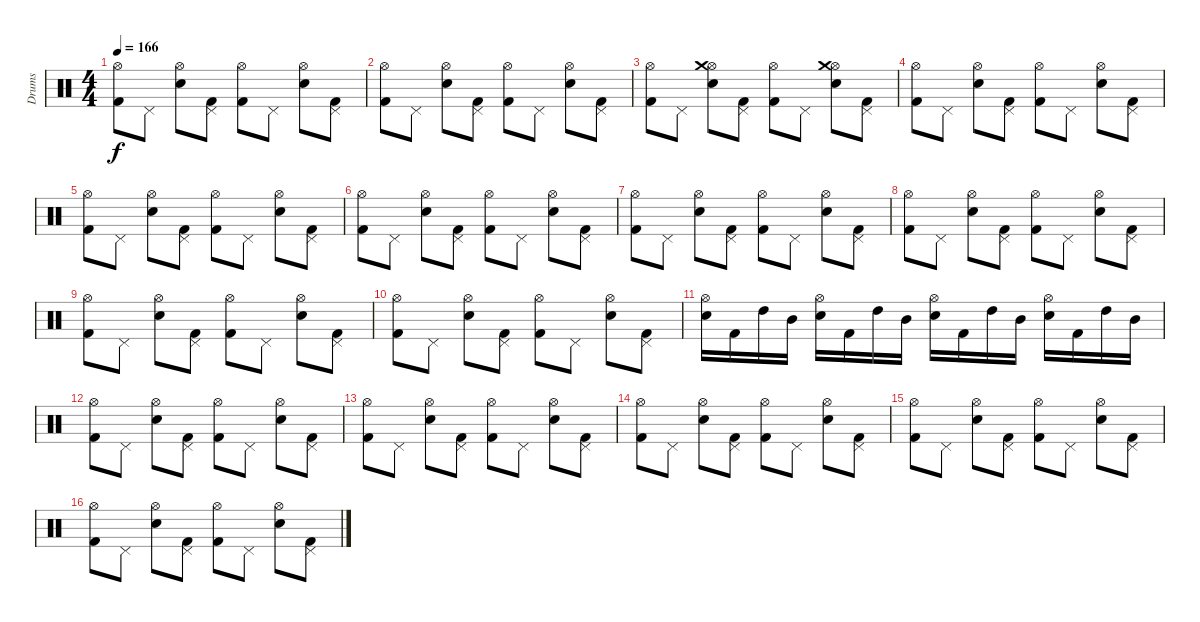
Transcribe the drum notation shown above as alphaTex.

\track ("Drums" "Drums") {instrument percussion}
\staff {score}
\articulation defaults
\ts (4 4)
\tempo 166
\clef neutral
\ks c
("Kick (hit) 2" "Hi-Hat (open)").8{dy f} "Pedal Hi-Hat (hit)".8 ("Snare (hit) 2" "Hi-Hat (open)").8 ("Kick (hit) 2" "Pedal Hi-Hat (hit)").8 ("Kick (hit) 2" "Hi-Hat (open)").8 "Pedal Hi-Hat (hit)".8 ("Snare (hit) 2" "Hi-Hat (open)").8 ("Kick (hit) 2" "Pedal Hi-Hat (hit)").8 |
("Kick (hit) 2" "Hi-Hat (open)").8 "Pedal Hi-Hat (hit)".8 ("Snare (hit) 2" "Hi-Hat (open)").8 ("Kick (hit) 2" "Pedal Hi-Hat (hit)").8 ("Kick (hit) 2" "Hi-Hat (open)").8 "Pedal Hi-Hat (hit)".8 ("Snare (hit) 2" "Hi-Hat (open)").8 ("Kick (hit) 2" "Pedal Hi-Hat (hit)").8 |
("Kick (hit) 2" "Hi-Hat (open)").8 "Pedal Hi-Hat (hit)".8 ("Snare (hit) 2" "Hi-Hat (open)" "Crash medium (hit)").8 ("Kick (hit) 2" "Pedal Hi-Hat (hit)").8 ("Kick (hit) 2" "Hi-Hat (open)").8 "Pedal Hi-Hat (hit)".8 ("Snare (hit) 2" "Hi-Hat (open)" "Crash medium (hit)").8 ("Kick (hit) 2" "Pedal Hi-Hat (hit)").8 |
("Kick (hit) 2" "Hi-Hat (open)").8 "Pedal Hi-Hat (hit)".8 ("Snare (hit) 2" "Hi-Hat (open)").8 ("Kick (hit) 2" "Pedal Hi-Hat (hit)").8 ("Kick (hit) 2" "Hi-Hat (open)").8 "Pedal Hi-Hat (hit)".8 ("Snare (hit) 2" "Hi-Hat (open)").8 ("Kick (hit) 2" "Pedal Hi-Hat (hit)").8 |
("Kick (hit) 2" "Hi-Hat (open)").8 "Pedal Hi-Hat (hit)".8 ("Snare (hit) 2" "Hi-Hat (open)").8 ("Kick (hit) 2" "Pedal Hi-Hat (hit)").8 ("Kick (hit) 2" "Hi-Hat (open)").8 "Pedal Hi-Hat (hit)".8 ("Snare (hit) 2" "Hi-Hat (open)").8 ("Kick (hit) 2" "Pedal Hi-Hat (hit)").8 |
("Kick (hit) 2" "Hi-Hat (open)").8 "Pedal Hi-Hat (hit)".8 ("Snare (hit) 2" "Hi-Hat (open)").8 ("Kick (hit) 2" "Pedal Hi-Hat (hit)").8 ("Kick (hit) 2" "Hi-Hat (open)").8 "Pedal Hi-Hat (hit)".8 ("Snare (hit) 2" "Hi-Hat (open)").8 ("Kick (hit) 2" "Pedal Hi-Hat (hit)").8 |
("Kick (hit) 2" "Hi-Hat (open)").8 "Pedal Hi-Hat (hit)".8 ("Snare (hit) 2" "Hi-Hat (open)").8 ("Kick (hit) 2" "Pedal Hi-Hat (hit)").8 ("Kick (hit) 2" "Hi-Hat (open)").8 "Pedal Hi-Hat (hit)".8 ("Snare (hit) 2" "Hi-Hat (open)").8 ("Kick (hit) 2" "Pedal Hi-Hat (hit)").8 |
("Kick (hit) 2" "Hi-Hat (open)").8 "Pedal Hi-Hat (hit)".8 ("Snare (hit) 2" "Hi-Hat (open)").8 ("Kick (hit) 2" "Pedal Hi-Hat (hit)").8 ("Kick (hit) 2" "Hi-Hat (open)").8 "Pedal Hi-Hat (hit)".8 ("Snare (hit) 2" "Hi-Hat (open)").8 ("Kick (hit) 2" "Pedal Hi-Hat (hit)").8 |
("Kick (hit) 2" "Hi-Hat (open)").8 "Pedal Hi-Hat (hit)".8 ("Snare (hit) 2" "Hi-Hat (open)").8 ("Kick (hit) 2" "Pedal Hi-Hat (hit)").8 ("Kick (hit) 2" "Hi-Hat (open)").8 "Pedal Hi-Hat (hit)".8 ("Snare (hit) 2" "Hi-Hat (open)").8 ("Kick (hit) 2" "Pedal Hi-Hat (hit)").8 |
("Kick (hit) 2" "Hi-Hat (open)").8 "Pedal Hi-Hat (hit)".8 ("Snare (hit) 2" "Hi-Hat (open)").8 ("Kick (hit) 2" "Pedal Hi-Hat (hit)").8 ("Kick (hit) 2" "Hi-Hat (open)").8 "Pedal Hi-Hat (hit)".8 ("Snare (hit) 2" "Hi-Hat (open)").8 ("Kick (hit) 2" "Pedal Hi-Hat (hit)").8 |
("Snare (hit) 2" "Hi-Hat (open)").16 "Kick (hit) 2".16 "High Tom (hit)".16 "Mid Tom (hit)".16 ("Snare (hit) 2" "Hi-Hat (open)").16 "Kick (hit) 2".16 "High Tom (hit)".16 "Mid Tom (hit)".16 ("Snare (hit) 2" "Hi-Hat (open)").16 "Kick (hit) 2".16 "High Tom (hit)".16 "Mid Tom (hit)".16 ("Snare (hit) 2" "Hi-Hat (open)").16 "Kick (hit) 2".16 "High Tom (hit)".16 "Mid Tom (hit)".16 |
("Kick (hit) 2" "Hi-Hat (open)").8 "Pedal Hi-Hat (hit)".8 ("Snare (hit) 2" "Hi-Hat (open)").8 ("Kick (hit) 2" "Pedal Hi-Hat (hit)").8 ("Kick (hit) 2" "Hi-Hat (open)").8 "Pedal Hi-Hat (hit)".8 ("Snare (hit) 2" "Hi-Hat (open)").8 ("Kick (hit) 2" "Pedal Hi-Hat (hit)").8 |
("Kick (hit) 2" "Hi-Hat (open)").8 "Pedal Hi-Hat (hit)".8 ("Snare (hit) 2" "Hi-Hat (open)").8 ("Kick (hit) 2" "Pedal Hi-Hat (hit)").8 ("Kick (hit) 2" "Hi-Hat (open)").8 "Pedal Hi-Hat (hit)".8 ("Snare (hit) 2" "Hi-Hat (open)").8 ("Kick (hit) 2" "Pedal Hi-Hat (hit)").8 |
("Kick (hit) 2" "Hi-Hat (open)").8 "Pedal Hi-Hat (hit)".8 ("Snare (hit) 2" "Hi-Hat (open)").8 ("Kick (hit) 2" "Pedal Hi-Hat (hit)").8 ("Kick (hit) 2" "Hi-Hat (open)").8 "Pedal Hi-Hat (hit)".8 ("Snare (hit) 2" "Hi-Hat (open)").8 ("Kick (hit) 2" "Pedal Hi-Hat (hit)").8 |
("Kick (hit) 2" "Hi-Hat (open)").8 "Pedal Hi-Hat (hit)".8 ("Snare (hit) 2" "Hi-Hat (open)").8 ("Kick (hit) 2" "Pedal Hi-Hat (hit)").8 ("Kick (hit) 2" "Hi-Hat (open)").8 "Pedal Hi-Hat (hit)".8 ("Snare (hit) 2" "Hi-Hat (open)").8 ("Kick (hit) 2" "Pedal Hi-Hat (hit)").8 |
("Kick (hit) 2" "Hi-Hat (open)").8 "Pedal Hi-Hat (hit)".8 ("Snare (hit) 2" "Hi-Hat (open)").8 ("Kick (hit) 2" "Pedal Hi-Hat (hit)").8 ("Kick (hit) 2" "Hi-Hat (open)").8 "Pedal Hi-Hat (hit)".8 ("Snare (hit) 2" "Hi-Hat (open)").8 ("Kick (hit) 2" "Pedal Hi-Hat (hit)").8
